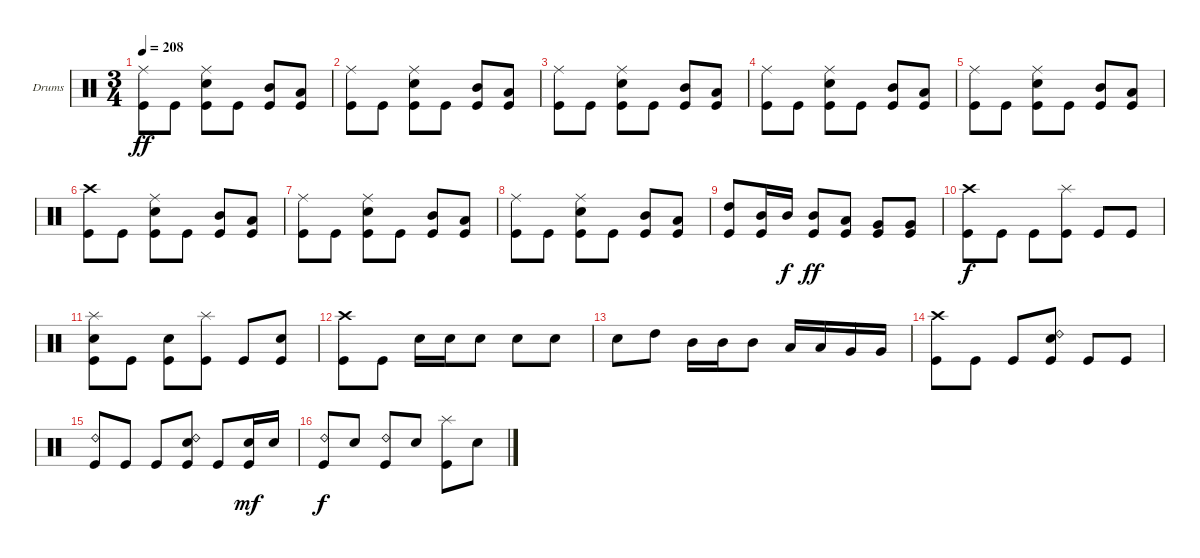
\bracketExtendMode groupsimilarinstruments
\firstSystemTrackNameOrientation horizontal
\otherSystemsTrackNameOrientation horizontal
\track ("Drumkit" "Drums") {instrument percussion}
\staff {score}
\articulation defaults
\ts (3 4)
\tempo 208
\clef neutral
\ks c
("Ride (middle)" "Kick (hit)").8{dy ff} "Kick (hit)".8 ("Ride (middle)" "Snare (hit) 2" "Kick (hit)").8 "Kick (hit)".8 ("Mid Tom (hit)" "Kick (hit)").8 ("Low Tom (hit)" "Kick (hit)").8 |
("Ride (middle)" "Kick (hit)").8 "Kick (hit)".8 ("Ride (middle)" "Snare (hit) 2" "Kick (hit)").8 "Kick (hit)".8 ("Mid Tom (hit)" "Kick (hit)").8 ("Low Tom (hit)" "Kick (hit)").8 |
("Ride (middle)" "Kick (hit)").8 "Kick (hit)".8 ("Ride (middle)" "Snare (hit) 2" "Kick (hit)").8 "Kick (hit)".8 ("Mid Tom (hit)" "Kick (hit)").8 ("Low Tom (hit)" "Kick (hit)").8 |
("Ride (middle)" "Kick (hit)").8 "Kick (hit)".8 ("Ride (middle)" "Snare (hit) 2" "Kick (hit)").8 "Kick (hit)".8 ("Mid Tom (hit)" "Kick (hit)").8 ("Low Tom (hit)" "Kick (hit)").8 |
("Ride (middle)" "Kick (hit)").8 "Kick (hit)".8 ("Ride (middle)" "Snare (hit) 2" "Kick (hit)").8 "Kick (hit)".8 ("Mid Tom (hit)" "Kick (hit)").8 ("Low Tom (hit)" "Kick (hit)").8 |
("Crash high (hit)" "Kick (hit)").8 "Kick (hit)".8 ("Ride (middle)" "Snare (hit) 2" "Kick (hit)").8 "Kick (hit)".8 ("Mid Tom (hit)" "Kick (hit)").8 ("Low Tom (hit)" "Kick (hit)").8 |
("Ride (middle)" "Kick (hit)").8 "Kick (hit)".8 ("Ride (middle)" "Snare (hit) 2" "Kick (hit)").8 "Kick (hit)".8 ("Mid Tom (hit)" "Kick (hit)").8 ("Low Tom (hit)" "Kick (hit)").8 |
("Ride (middle)" "Kick (hit)").8 "Kick (hit)".8 ("Ride (middle)" "Snare (hit) 2" "Kick (hit)").8 "Kick (hit)".8 ("Mid Tom (hit)" "Kick (hit)").8 ("Low Tom (hit)" "Kick (hit)").8 |
("High Tom (hit)" "Kick (hit)").8 ("Mid Tom (hit)" "Kick (hit)").16 "Mid Tom (hit)".16{dy f} ("Mid Tom (hit)" "Kick (hit)").8{dy ff} ("Low Tom (hit)" "Kick (hit)").8 ("Very Low Tom (hit)" "Kick (hit)").8 ("Very Low Tom (hit)" "Kick (hit)").8 |
("Crash high (hit)" "Kick (hit)").8{dy f} "Kick (hit)".8 "Kick (hit)".8 ("Splash (hit)" "Kick (hit)").8 "Kick (hit)".8 "Kick (hit)".8 |
("Splash (hit)" "Snare (hit) 2" "Kick (hit)").8 "Kick (hit)".8 ("Snare (hit) 2" "Kick (hit)").8 ("Splash (hit)" "Kick (hit)").8 "Kick (hit)".8 ("Snare (hit) 2" "Kick (hit)").8 |
("Crash high (hit)" "Kick (hit)").8 "Kick (hit)".8 "Snare (hit) 2".16 "Snare (hit) 2".16 "Snare (hit) 2".8 "Snare (hit) 2".8 "Snare (hit) 2".8 |
"Snare (hit) 2".8 "High Tom (hit)".8 "Mid Tom (hit)".16 "Mid Tom (hit)".16 "Mid Tom (hit)".8 "Low Tom (hit)".16 "Low Tom (hit)".16 "Very Low Tom (hit)".16 "Very Low Tom (hit)".16 |
("Crash high (hit)" "Kick (hit)").8 "Kick (hit)".8 "Kick (hit)".8 ("Ride (bell) 2" "Snare (hit) 2" "Kick (hit)").8 "Kick (hit)".8 "Kick (hit)".8 |
("Ride (bell) 2" "Kick (hit)").8 "Kick (hit)".8 "Kick (hit)".8 ("Ride (bell) 2" "Snare (hit) 2" "Kick (hit)").8 "Kick (hit)".8 ("Snare (hit) 2" "Kick (hit)").16{dy mf} "Snare (hit) 2".16 |
("Ride (bell) 2" "Kick (hit)").8{dy f} "Snare (hit) 2".8 ("Ride (bell) 2" "Kick (hit)").8 "Snare (hit) 2".8 ("Splash (hit)" "Kick (hit)").8 "Snare (hit) 2".8
